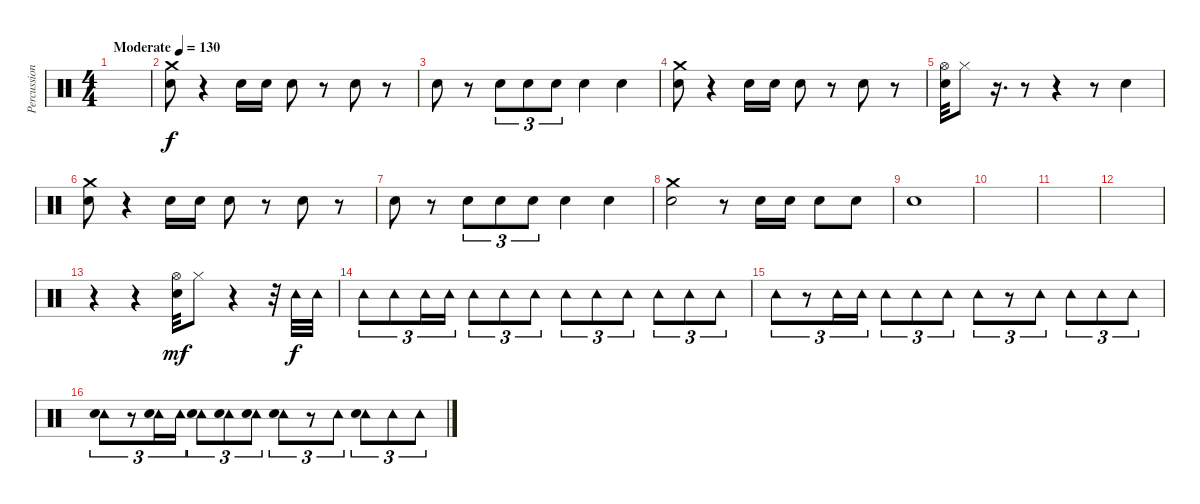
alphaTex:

\track ("Percussion" "Percussion") {instrument percussion}
\staff {score}
\articulation defaults
\ts (4 4)
\tempo (130 "Moderate")
\clef neutral
\ks c
|
("Crash medium (hit)" "Snare (hit) 2").8 r.4 "Snare (hit) 2".16 "Snare (hit) 2".16 "Snare (hit) 2".8 r.8 "Snare (hit) 2".8 r.8 |
"Snare (hit) 2".8 r.8 "Snare (hit) 2".8{tu (3 2)} "Snare (hit) 2".8{tu (3 2)} "Snare (hit) 2".8{tu (3 2)} "Snare (hit) 2".4 "Snare (hit) 2".4 |
("Crash medium (hit)" "Snare (hit) 2").8 r.4 "Snare (hit) 2".16 "Snare (hit) 2".16 "Snare (hit) 2".8 r.8 "Snare (hit) 2".8 r.8 |
("Hi-Hat (open)" "Snare (hit) 2").32 "Hi-Hat (closed)".8 r.16{d} r.8 r.4 r.8 "Snare (hit) 2".4 |
("Crash medium (hit)" "Snare (hit) 2").8 r.4 "Snare (hit) 2".16 "Snare (hit) 2".16 "Snare (hit) 2".8 r.8 "Snare (hit) 2".8 r.8 |
"Snare (hit) 2".8 r.8 "Snare (hit) 2".8{tu (3 2)} "Snare (hit) 2".8{tu (3 2)} "Snare (hit) 2".8{tu (3 2)} "Snare (hit) 2".4 "Snare (hit) 2".4 |
("Crash medium (hit)" "Snare (hit) 2").2 r.8 "Snare (hit) 2".16 "Snare (hit) 2".16 "Snare (hit) 2".8 "Snare (hit) 2".8 |
"Snare (hit) 2".1 |
|
|
|
r.4 r.4 ("Hi-Hat (open)" "Snare (hit) 2").32{dy mf} "Hi-Hat (closed)".8 r.4 r.32 "Tambourine (hit)".32{dy f volume 8 balance 0} "Tambourine (hit)".32 |
"Tambourine (hit)".8{tu (3 2)} "Tambourine (hit)".8{tu (3 2)} "Tambourine (hit)".16{tu (3 2)} "Tambourine (hit)".16{tu (3 2)} "Tambourine (hit)".8{tu (3 2)} "Tambourine (hit)".8{tu (3 2)} "Tambourine (hit)".8{tu (3 2)} "Tambourine (hit)".8{tu (3 2)} "Tambourine (hit)".8{tu (3 2)} "Tambourine (hit)".8{tu (3 2)} "Tambourine (hit)".8{tu (3 2)} "Tambourine (hit)".8{tu (3 2)} "Tambourine (hit)".8{tu (3 2)} |
"Tambourine (hit)".8{tu (3 2)} r.8{tu (3 2)} "Tambourine (hit)".16{tu (3 2)} "Tambourine (hit)".16{tu (3 2)} "Tambourine (hit)".8{tu (3 2)} "Tambourine (hit)".8{tu (3 2)} "Tambourine (hit)".8{tu (3 2)} "Tambourine (hit)".8{tu (3 2)} r.8{tu (3 2)} "Tambourine (hit)".8{tu (3 2)} "Tambourine (hit)".8{tu (3 2)} "Tambourine (hit)".8{tu (3 2)} "Tambourine (hit)".8{tu (3 2)} |
("Tambourine (hit)" "Snare (hit) 2").8{tu (3 2)} r.8{tu (3 2)} ("Tambourine (hit)" "Snare (hit) 2").16{tu (3 2)} "Tambourine (hit)".16{tu (3 2)} ("Tambourine (hit)" "Snare (hit) 2").8{tu (3 2)} ("Tambourine (hit)" "Snare (hit) 2").8{tu (3 2)} ("Tambourine (hit)" "Snare (hit) 2").8{tu (3 2)} ("Tambourine (hit)" "Snare (hit) 2").8{tu (3 2)} r.8{tu (3 2)} "Tambourine (hit)".8{tu (3 2)} ("Tambourine (hit)" "Snare (hit) 2").8{tu (3 2)} "Tambourine (hit)".8{tu (3 2)} "Tambourine (hit)".8{tu (3 2)}
